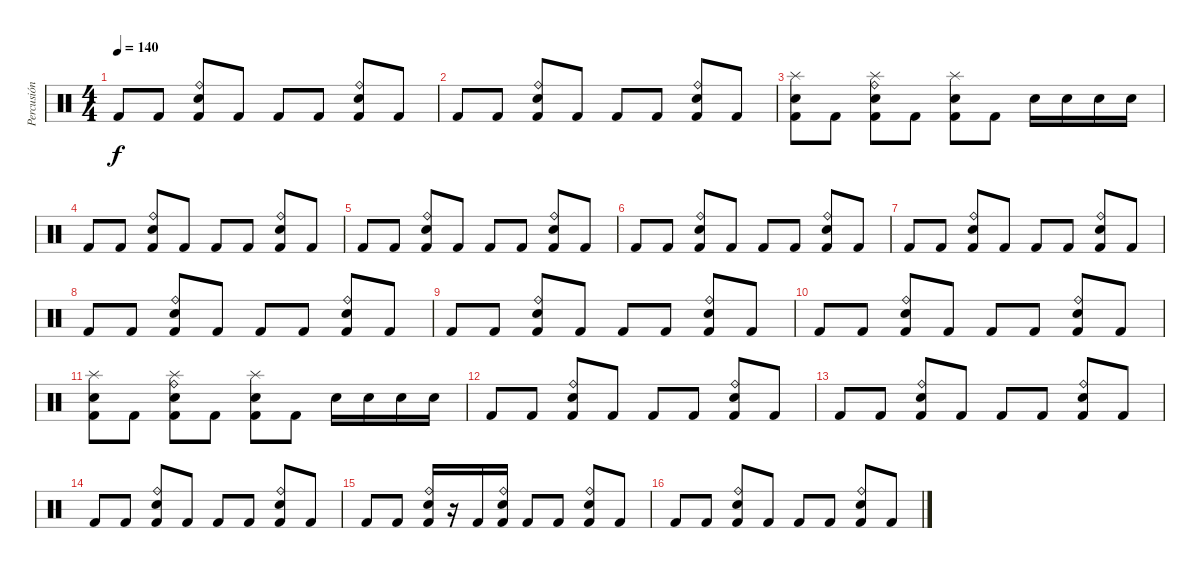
\track ("Percusión" "Percusión") {instrument percussion}
\staff {score}
\articulation defaults
\ts (4 4)
\tempo 140
\clef neutral
\ks c "Kick (hit) 2".8{dy f} "Kick (hit) 2".8
("Ride (bell)" "Electric Snare (hit)" "Kick (hit) 2").8 "Kick (hit) 2".8 "Kick (hit) 2".8 "Kick (hit) 2".8 ("Ride (bell)" "Electric Snare (hit)" "Kick (hit) 2").8 "Kick (hit) 2".8 |
"Kick (hit) 2".8 "Kick (hit) 2".8 ("Ride (bell)" "Electric Snare (hit)" "Kick (hit) 2").8 "Kick (hit) 2".8 "Kick (hit) 2".8 "Kick (hit) 2".8 ("Ride (bell)" "Electric Snare (hit)" "Kick (hit) 2").8 "Kick (hit) 2".8 |
("Splash (hit)" "Electric Snare (hit)" "Kick (hit) 2").8 "Kick (hit) 2".8 ("Ride (bell)" "Splash (hit)" "Electric Snare (hit)" "Kick (hit) 2").8 "Kick (hit) 2".8 ("Splash (hit)" "Electric Snare (hit)" "Kick (hit) 2").8 "Kick (hit) 2".8 "Electric Snare (hit)".16 "Electric Snare (hit)".16 "Electric Snare (hit)".16 "Electric Snare (hit)".16 |
"Kick (hit) 2".8 "Kick (hit) 2".8 ("Ride (bell)" "Electric Snare (hit)" "Kick (hit) 2").8 "Kick (hit) 2".8 "Kick (hit) 2".8 "Kick (hit) 2".8 ("Ride (bell)" "Electric Snare (hit)" "Kick (hit) 2").8 "Kick (hit) 2".8 |
"Kick (hit) 2".8 "Kick (hit) 2".8 ("Ride (bell)" "Electric Snare (hit)" "Kick (hit) 2").8 "Kick (hit) 2".8 "Kick (hit) 2".8 "Kick (hit) 2".8 ("Ride (bell)" "Electric Snare (hit)" "Kick (hit) 2").8 "Kick (hit) 2".8 |
"Kick (hit) 2".8 "Kick (hit) 2".8 ("Ride (bell)" "Electric Snare (hit)" "Kick (hit) 2").8 "Kick (hit) 2".8 "Kick (hit) 2".8 "Kick (hit) 2".8 ("Ride (bell)" "Electric Snare (hit)" "Kick (hit) 2").8 "Kick (hit) 2".8 |
"Kick (hit) 2".8 "Kick (hit) 2".8 ("Ride (bell)" "Electric Snare (hit)" "Kick (hit) 2").8 "Kick (hit) 2".8 "Kick (hit) 2".8 "Kick (hit) 2".8 ("Ride (bell)" "Electric Snare (hit)" "Kick (hit) 2").8 "Kick (hit) 2".8 |
"Kick (hit) 2".8 "Kick (hit) 2".8 ("Ride (bell)" "Electric Snare (hit)" "Kick (hit) 2").8 "Kick (hit) 2".8 "Kick (hit) 2".8 "Kick (hit) 2".8 ("Ride (bell)" "Electric Snare (hit)" "Kick (hit) 2").8 "Kick (hit) 2".8 |
"Kick (hit) 2".8 "Kick (hit) 2".8 ("Ride (bell)" "Electric Snare (hit)" "Kick (hit) 2").8 "Kick (hit) 2".8 "Kick (hit) 2".8 "Kick (hit) 2".8 ("Ride (bell)" "Electric Snare (hit)" "Kick (hit) 2").8 "Kick (hit) 2".8 |
"Kick (hit) 2".8 "Kick (hit) 2".8 ("Ride (bell)" "Electric Snare (hit)" "Kick (hit) 2").8 "Kick (hit) 2".8 "Kick (hit) 2".8 "Kick (hit) 2".8 ("Ride (bell)" "Electric Snare (hit)" "Kick (hit) 2").8 "Kick (hit) 2".8 |
("Splash (hit)" "Electric Snare (hit)" "Kick (hit) 2").8 "Kick (hit) 2".8 ("Ride (bell)" "Splash (hit)" "Electric Snare (hit)" "Kick (hit) 2").8 "Kick (hit) 2".8 ("Splash (hit)" "Electric Snare (hit)" "Kick (hit) 2").8 "Kick (hit) 2".8 "Electric Snare (hit)".16 "Electric Snare (hit)".16 "Electric Snare (hit)".16 "Electric Snare (hit)".16 |
"Kick (hit) 2".8 "Kick (hit) 2".8 ("Ride (bell)" "Electric Snare (hit)" "Kick (hit) 2").8 "Kick (hit) 2".8 "Kick (hit) 2".8 "Kick (hit) 2".8 ("Ride (bell)" "Electric Snare (hit)" "Kick (hit) 2").8 "Kick (hit) 2".8 |
"Kick (hit) 2".8 "Kick (hit) 2".8 ("Ride (bell)" "Electric Snare (hit)" "Kick (hit) 2").8 "Kick (hit) 2".8 "Kick (hit) 2".8 "Kick (hit) 2".8 ("Ride (bell)" "Electric Snare (hit)" "Kick (hit) 2").8 "Kick (hit) 2".8 |
"Kick (hit) 2".8 "Kick (hit) 2".8 ("Ride (bell)" "Electric Snare (hit)" "Kick (hit) 2").8 "Kick (hit) 2".8 "Kick (hit) 2".8 "Kick (hit) 2".8 ("Ride (bell)" "Electric Snare (hit)" "Kick (hit) 2").8 "Kick (hit) 2".8 |
"Kick (hit) 2".8 "Kick (hit) 2".8 ("Ride (bell)" "Electric Snare (hit)" "Kick (hit) 2").16 r.16 "Kick (hit) 2".16 ("Ride (bell)" "Electric Snare (hit)" "Kick (hit) 2").16 "Kick (hit) 2".8 "Kick (hit) 2".8 ("Ride (bell)" "Electric Snare (hit)" "Kick (hit) 2").8 "Kick (hit) 2".8 |
"Kick (hit) 2".8 "Kick (hit) 2".8 ("Ride (bell)" "Electric Snare (hit)" "Kick (hit) 2").8 "Kick (hit) 2".8 "Kick (hit) 2".8 "Kick (hit) 2".8 ("Ride (bell)" "Electric Snare (hit)" "Kick (hit) 2").8 "Kick (hit) 2".8
